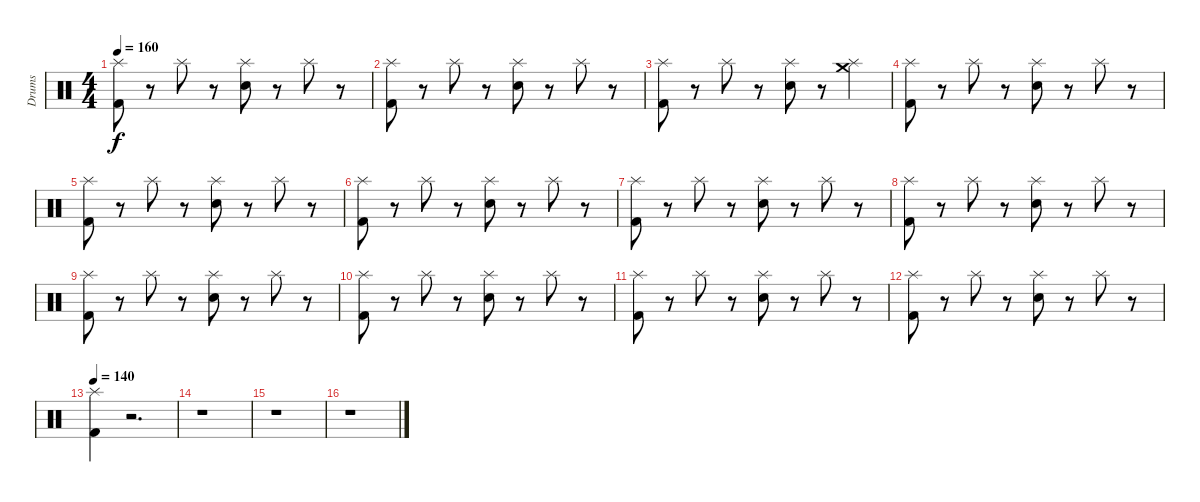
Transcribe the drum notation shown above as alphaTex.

\track ("Drums" "Drums") {instrument percussion}
\staff {score}
\articulation defaults
\ts (4 4)
\tempo 160
\clef neutral
\ks c
("Kick (hit) 2" "Splash (hit)").8{dy f} r.8 "Splash (hit)".8 r.8 ("Snare (hit) 2" "Splash (hit)").8 r.8 "Splash (hit)".8 r.8 |
("Kick (hit) 2" "Splash (hit)").8 r.8 "Splash (hit)".8 r.8 ("Snare (hit) 2" "Splash (hit)").8 r.8 "Splash (hit)".8 r.8 |
("Kick (hit) 2" "Splash (hit)").8 r.8 "Splash (hit)".8 r.8 ("Snare (hit) 2" "Splash (hit)").8 r.8 ("Splash (hit)" "Crash medium (hit)").4 |
("Kick (hit) 2" "Splash (hit)").8 r.8 "Splash (hit)".8 r.8 ("Snare (hit) 2" "Splash (hit)").8 r.8 "Splash (hit)".8 r.8 |
("Splash (hit)" "Kick (hit) 2").8 r.8 "Splash (hit)".8 r.8 ("Splash (hit)" "Snare (hit) 2").8 r.8 "Splash (hit)".8 r.8 |
("Splash (hit)" "Kick (hit) 2").8 r.8 "Splash (hit)".8 r.8 ("Splash (hit)" "Snare (hit) 2").8 r.8 "Splash (hit)".8 r.8 |
("Splash (hit)" "Kick (hit) 2").8 r.8 "Splash (hit)".8 r.8 ("Splash (hit)" "Snare (hit) 2").8 r.8 "Splash (hit)".8 r.8 |
("Splash (hit)" "Kick (hit) 2").8 r.8 "Splash (hit)".8 r.8 ("Splash (hit)" "Snare (hit) 2").8 r.8 "Splash (hit)".8 r.8 |
("Splash (hit)" "Kick (hit) 2").8 r.8 "Splash (hit)".8 r.8 ("Splash (hit)" "Snare (hit) 2").8 r.8 "Splash (hit)".8 r.8 |
("Splash (hit)" "Kick (hit) 2").8 r.8 "Splash (hit)".8 r.8 ("Splash (hit)" "Snare (hit) 2").8 r.8 "Splash (hit)".8 r.8 |
("Splash (hit)" "Kick (hit) 2").8 r.8 "Splash (hit)".8 r.8 ("Splash (hit)" "Snare (hit) 2").8 r.8 "Splash (hit)".8 r.8 |
("Splash (hit)" "Kick (hit) 2").8 r.8 "Splash (hit)".8 r.8 ("Splash (hit)" "Snare (hit) 2").8 r.8 "Splash (hit)".8 r.8 |
\tempo 140
("Kick (hit) 2" "Splash (hit)").4 r.2{d} |
r.1 |
r.1 |
r.1
